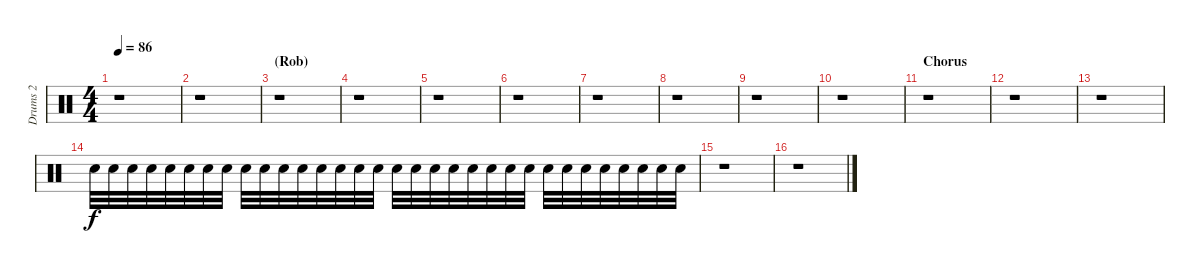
\track ("Drums 2" "Drums 2") {instrument percussion}
\staff {score}
\articulation defaults
\ts (4 4)
\tempo 86
\clef neutral
\ks c
r.1{dy f} |
r.1 |
\section ("" "(Rob)")
r.1 |
r.1 |
r.1 |
r.1 |
r.1 |
r.1 |
r.1 |
r.1 |
\section ("" "Chorus")
r.1 |
r.1 |
r.1 |
"Electric Snare (hit)".32 "Electric Snare (hit)".32 "Electric Snare (hit)".32 "Electric Snare (hit)".32 "Electric Snare (hit)".32 "Electric Snare (hit)".32 "Electric Snare (hit)".32 "Electric Snare (hit)".32 "Electric Snare (hit)".32 "Electric Snare (hit)".32 "Electric Snare (hit)".32 "Electric Snare (hit)".32 "Electric Snare (hit)".32 "Electric Snare (hit)".32 "Electric Snare (hit)".32 "Electric Snare (hit)".32 "Electric Snare (hit)".32 "Electric Snare (hit)".32 "Electric Snare (hit)".32 "Electric Snare (hit)".32 "Electric Snare (hit)".32 "Electric Snare (hit)".32 "Electric Snare (hit)".32 "Electric Snare (hit)".32 "Electric Snare (hit)".32 "Electric Snare (hit)".32 "Electric Snare (hit)".32 "Electric Snare (hit)".32 "Electric Snare (hit)".32 "Electric Snare (hit)".32 "Electric Snare (hit)".32 "Electric Snare (hit)".32 |
r.1 |
r.1
